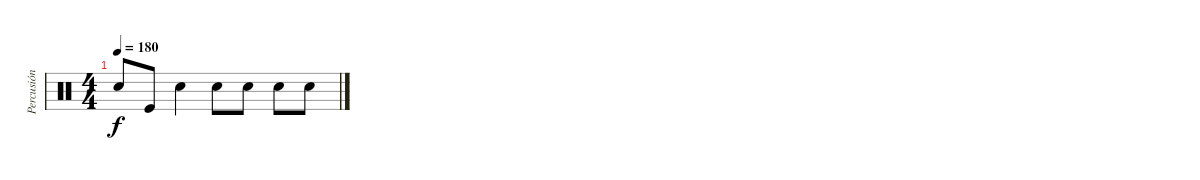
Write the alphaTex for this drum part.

\track ("Percusión" "Percusión") {instrument percussion}
\staff {score}
\articulation defaults
\ts (4 4)
\tempo 180
\clef neutral
\ks c "Snare (hit)"{t}.8{dy f} "Kick (hit)".8 "Electric Snare (hit)".4 "Electric Snare (hit)".8 "Electric Snare (hit)".8 "Electric Snare (hit)".8 "Electric Snare (hit)".8
